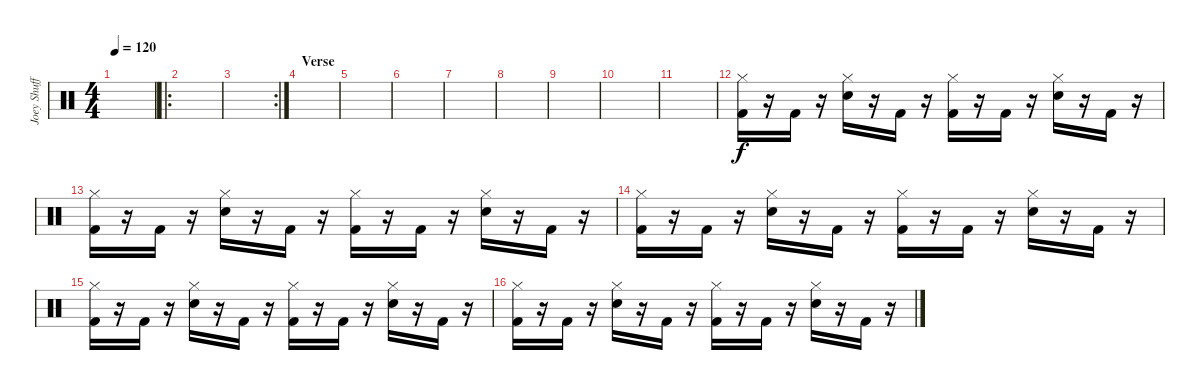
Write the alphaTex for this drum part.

\track ("Joey Shuffield" "Joey Shuff") {instrument percussion}
\staff {score}
\articulation defaults
\ts (4 4)
\tempo 120
\clef neutral
\ks c
|
\ro
|
\rc 2
|
\section ("" "Verse")
|
|
|
|
|
|
|
|
("Kick (hit) 2" "Hi-Hat (closed)").16 r.16 "Kick (hit) 2".16 r.16 ("Snare (hit) 2" "Hi-Hat (closed)").16 r.16 "Kick (hit) 2".16 r.16 ("Kick (hit) 2" "Hi-Hat (closed)").16 r.16 "Kick (hit) 2".16 r.16 ("Snare (hit) 2" "Hi-Hat (closed)").16 r.16 "Kick (hit) 2".16 r.16 |
("Kick (hit) 2" "Hi-Hat (closed)").16 r.16 "Kick (hit) 2".16 r.16 ("Snare (hit) 2" "Hi-Hat (closed)").16 r.16 "Kick (hit) 2".16 r.16 ("Kick (hit) 2" "Hi-Hat (closed)").16 r.16 "Kick (hit) 2".16 r.16 ("Snare (hit) 2" "Hi-Hat (closed)").16 r.16 "Kick (hit) 2".16 r.16 |
("Kick (hit) 2" "Hi-Hat (closed)").16 r.16 "Kick (hit) 2".16 r.16 ("Snare (hit) 2" "Hi-Hat (closed)").16 r.16 "Kick (hit) 2".16 r.16 ("Kick (hit) 2" "Hi-Hat (closed)").16 r.16 "Kick (hit) 2".16 r.16 ("Snare (hit) 2" "Hi-Hat (closed)").16 r.16 "Kick (hit) 2".16 r.16 |
("Kick (hit) 2" "Hi-Hat (closed)").16 r.16 "Kick (hit) 2".16 r.16 ("Snare (hit) 2" "Hi-Hat (closed)").16 r.16 "Kick (hit) 2".16 r.16 ("Kick (hit) 2" "Hi-Hat (closed)").16 r.16 "Kick (hit) 2".16 r.16 ("Snare (hit) 2" "Hi-Hat (closed)").16 r.16 "Kick (hit) 2".16 r.16 |
("Kick (hit) 2" "Hi-Hat (closed)").16 r.16 "Kick (hit) 2".16 r.16 ("Snare (hit) 2" "Hi-Hat (closed)").16 r.16 "Kick (hit) 2".16 r.16 ("Kick (hit) 2" "Hi-Hat (closed)").16 r.16 "Kick (hit) 2".16 r.16 ("Snare (hit) 2" "Hi-Hat (closed)").16 r.16 "Kick (hit) 2".16 r.16
